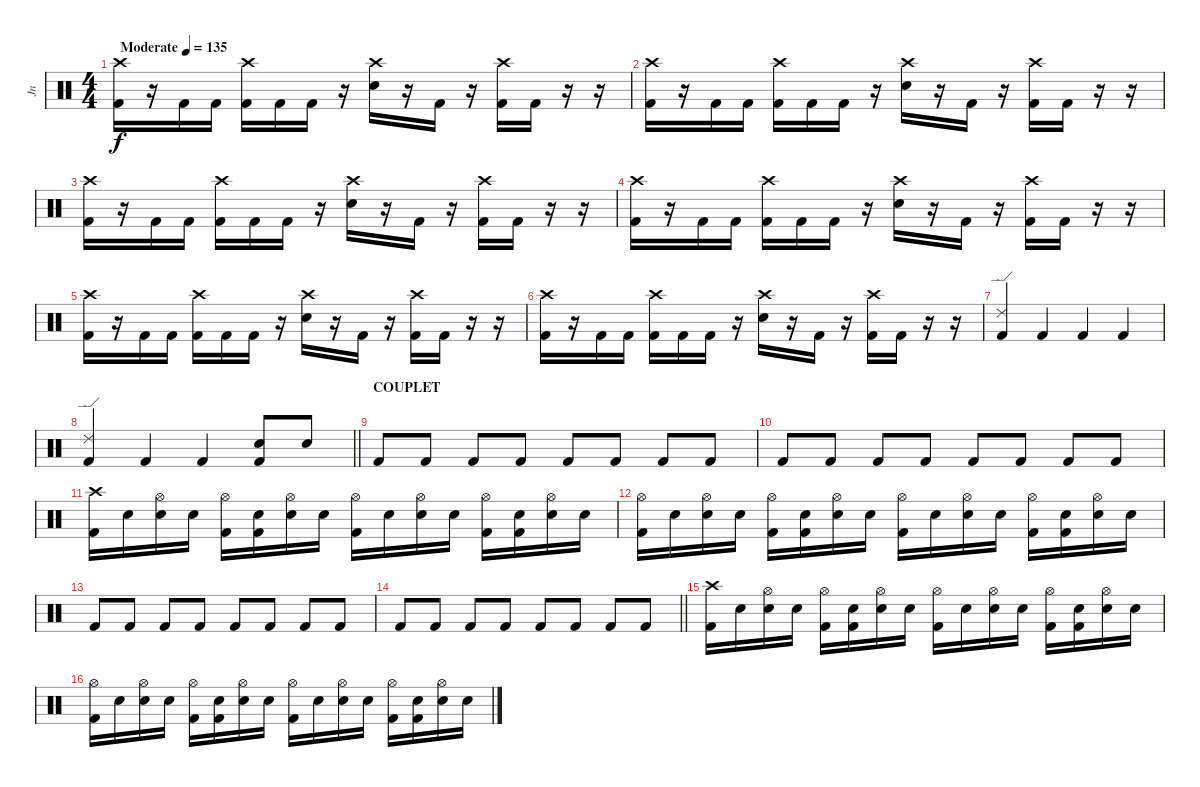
\track ("Jn" "Jn") {instrument percussion}
\staff {score}
\articulation defaults
\ts (4 4)
\tempo (135 "Moderate")
\clef neutral
\ks c
("Crash high (hit)" "Kick (hit) 2").16{dy f} r.16 "Kick (hit) 2".16 "Kick (hit) 2".16 ("Crash high (hit)" "Kick (hit) 2").16 "Kick (hit) 2".16 "Kick (hit) 2".16 r.16 ("Crash high (hit)" "Electric Snare (hit)").16 r.16 "Kick (hit) 2".16 r.16 ("Crash high (hit)" "Kick (hit) 2").16 "Kick (hit) 2".16 r.16 r.16 |
("Crash high (hit)" "Kick (hit) 2").16 r.16 "Kick (hit) 2".16 "Kick (hit) 2".16 ("Crash high (hit)" "Kick (hit) 2").16 "Kick (hit) 2".16 "Kick (hit) 2".16 r.16 ("Crash high (hit)" "Electric Snare (hit)").16 r.16 "Kick (hit) 2".16 r.16 ("Crash high (hit)" "Kick (hit) 2").16 "Kick (hit) 2".16 r.16 r.16 |
("Crash high (hit)" "Kick (hit) 2").16 r.16 "Kick (hit) 2".16 "Kick (hit) 2".16 ("Crash high (hit)" "Kick (hit) 2").16 "Kick (hit) 2".16 "Kick (hit) 2".16 r.16 ("Crash high (hit)" "Electric Snare (hit)").16 r.16 "Kick (hit) 2".16 r.16 ("Crash high (hit)" "Kick (hit) 2").16 "Kick (hit) 2".16 r.16 r.16 |
("Crash high (hit)" "Kick (hit) 2").16 r.16 "Kick (hit) 2".16 "Kick (hit) 2".16 ("Crash high (hit)" "Kick (hit) 2").16 "Kick (hit) 2".16 "Kick (hit) 2".16 r.16 ("Crash high (hit)" "Electric Snare (hit)").16 r.16 "Kick (hit) 2".16 r.16 ("Crash high (hit)" "Kick (hit) 2").16 "Kick (hit) 2".16 r.16 r.16 |
("Crash high (hit)" "Kick (hit) 2").16 r.16 "Kick (hit) 2".16 "Kick (hit) 2".16 ("Crash high (hit)" "Kick (hit) 2").16 "Kick (hit) 2".16 "Kick (hit) 2".16 r.16 ("Crash high (hit)" "Electric Snare (hit)").16 r.16 "Kick (hit) 2".16 r.16 ("Crash high (hit)" "Kick (hit) 2").16 "Kick (hit) 2".16 r.16 r.16 |
("Crash high (hit)" "Kick (hit) 2").16 r.16 "Kick (hit) 2".16 "Kick (hit) 2".16 ("Crash high (hit)" "Kick (hit) 2").16 "Kick (hit) 2".16 "Kick (hit) 2".16 r.16 ("Crash high (hit)" "Electric Snare (hit)").16 r.16 "Kick (hit) 2".16 r.16 ("Crash high (hit)" "Kick (hit) 2").16 "Kick (hit) 2".16 r.16 r.16 |
("Ride (edge) 2" "Kick (hit) 2").4 "Kick (hit) 2".4 "Kick (hit) 2".4 "Kick (hit) 2".4 |
\barLineRight lightlight
("Ride (edge) 2" "Kick (hit) 2").4 "Kick (hit) 2".4 "Kick (hit) 2".4 ("Electric Snare (hit)" "Kick (hit) 2").8 "Electric Snare (hit)".8 |
\section ("" "COUPLET")
"Kick (hit) 2".8 "Kick (hit) 2".8 "Kick (hit) 2".8 "Kick (hit) 2".8 "Kick (hit) 2".8 "Kick (hit) 2".8 "Kick (hit) 2".8 "Kick (hit) 2".8 |
"Kick (hit) 2".8 "Kick (hit) 2".8 "Kick (hit) 2".8 "Kick (hit) 2".8 "Kick (hit) 2".8 "Kick (hit) 2".8 "Kick (hit) 2".8 "Kick (hit) 2".8 |
("Crash high (hit)" "Kick (hit) 2").16 "Snare (hit)".16 ("Hi-Hat (open)" "Electric Snare (hit)").16 "Snare (hit)".16 ("Hi-Hat (open)" "Kick (hit) 2").16 ("Snare (hit)" "Kick (hit) 2").16 ("Hi-Hat (open)" "Electric Snare (hit)").16 "Snare (hit)".16 ("Hi-Hat (open)" "Kick (hit) 2").16 "Snare (hit)".16 ("Hi-Hat (open)" "Electric Snare (hit)").16 "Snare (hit)".16 ("Hi-Hat (open)" "Kick (hit) 2").16 ("Snare (hit)" "Kick (hit) 2").16 ("Hi-Hat (open)" "Electric Snare (hit)").16 "Snare (hit)".16 |
("Hi-Hat (open)" "Kick (hit) 2").16 "Snare (hit)".16 ("Hi-Hat (open)" "Electric Snare (hit)").16 "Snare (hit)".16 ("Hi-Hat (open)" "Kick (hit) 2").16 ("Snare (hit)" "Kick (hit) 2").16 ("Hi-Hat (open)" "Electric Snare (hit)").16 "Snare (hit)".16 ("Hi-Hat (open)" "Kick (hit) 2").16 "Snare (hit)".16 ("Hi-Hat (open)" "Electric Snare (hit)").16 "Snare (hit)".16 ("Hi-Hat (open)" "Kick (hit) 2").16 ("Snare (hit)" "Kick (hit) 2").16 ("Hi-Hat (open)" "Electric Snare (hit)").16 "Snare (hit)".16 |
"Kick (hit) 2".8 "Kick (hit) 2".8 "Kick (hit) 2".8 "Kick (hit) 2".8 "Kick (hit) 2".8 "Kick (hit) 2".8 "Kick (hit) 2".8 "Kick (hit) 2".8 |
\barLineRight lightlight "Kick (hit) 2".8 "Kick (hit) 2".8 "Kick (hit) 2".8 "Kick (hit) 2".8 "Kick (hit) 2".8 "Kick (hit) 2".8 "Kick (hit) 2".8 "Kick (hit) 2".8
|
("Crash high (hit)" "Kick (hit) 2").16 "Snare (hit)".16 ("Hi-Hat (open)" "Electric Snare (hit)").16 "Snare (hit)".16 ("Hi-Hat (open)" "Kick (hit) 2").16 ("Snare (hit)" "Kick (hit) 2").16 ("Hi-Hat (open)" "Electric Snare (hit)").16 "Snare (hit)".16 ("Hi-Hat (open)" "Kick (hit) 2").16 "Snare (hit)".16 ("Hi-Hat (open)" "Electric Snare (hit)").16 "Snare (hit)".16 ("Hi-Hat (open)" "Kick (hit) 2").16 ("Snare (hit)" "Kick (hit) 2").16 ("Hi-Hat (open)" "Electric Snare (hit)").16 "Snare (hit)".16 |
("Hi-Hat (open)" "Kick (hit) 2").16 "Snare (hit)".16 ("Hi-Hat (open)" "Electric Snare (hit)").16 "Snare (hit)".16 ("Hi-Hat (open)" "Kick (hit) 2").16 ("Snare (hit)" "Kick (hit) 2").16 ("Hi-Hat (open)" "Electric Snare (hit)").16 "Snare (hit)".16 ("Hi-Hat (open)" "Kick (hit) 2").16 "Snare (hit)".16 ("Hi-Hat (open)" "Electric Snare (hit)").16 "Snare (hit)".16 ("Hi-Hat (open)" "Kick (hit) 2").16 ("Snare (hit)" "Kick (hit) 2").16 ("Hi-Hat (open)" "Electric Snare (hit)").16 "Snare (hit)".16
